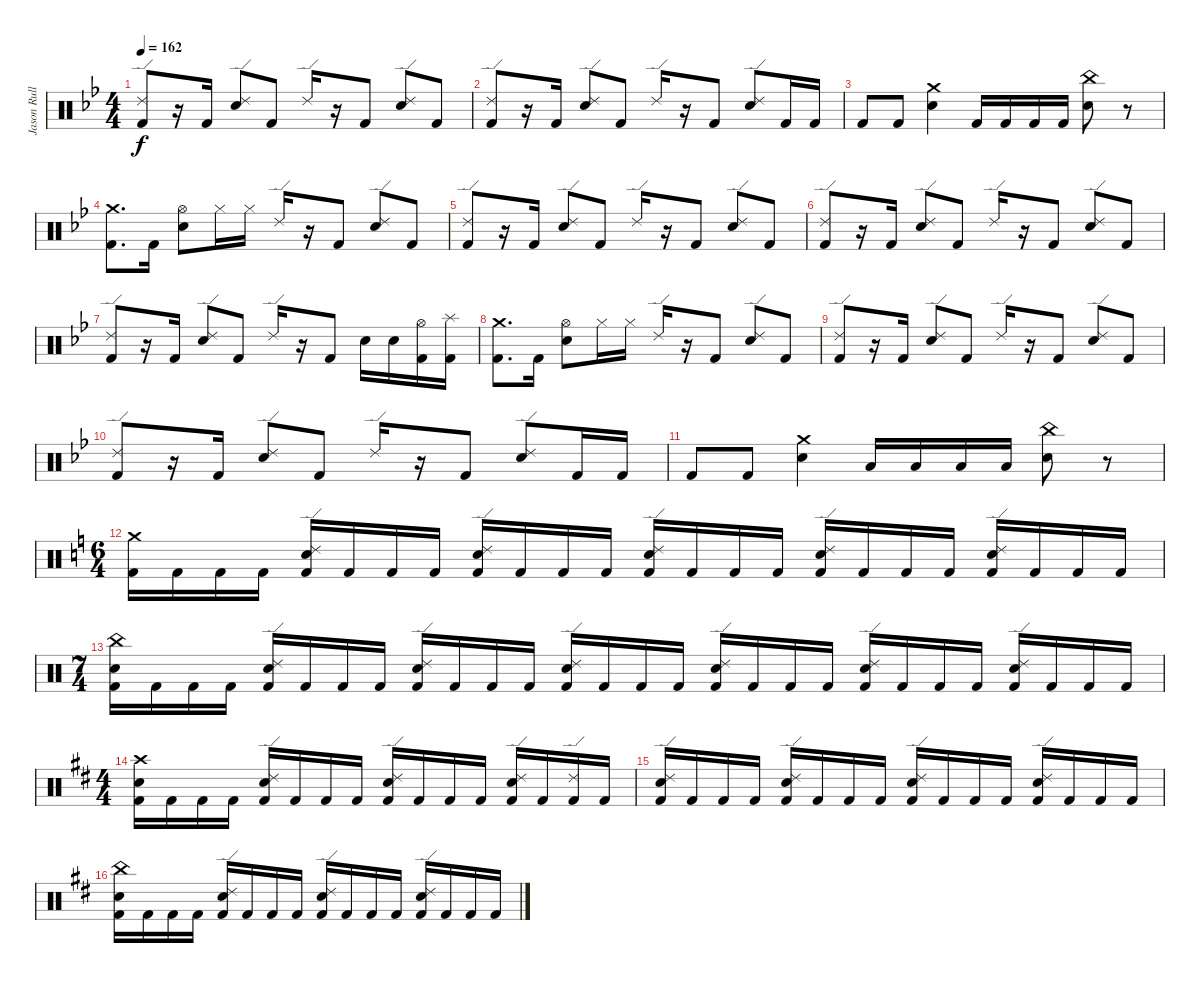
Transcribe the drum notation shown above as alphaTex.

\track ("Jason Rullo" "Jason Rull") {instrument percussion}
\staff {score}
\articulation defaults
\ts (4 4)
\tempo 162
\clef neutral
\ks bb
("Ride (edge) 2" "Kick (hit) 2").8{dy f} r.16 "Kick (hit) 2".16 ("Electric Snare (hit)" "Ride (edge) 2").8 "Kick (hit) 2".8 "Ride (edge) 2".16 r.16 "Kick (hit) 2".8 ("Electric Snare (hit)" "Ride (edge) 2").8 "Kick (hit) 2".8 |
("Ride (edge) 2" "Kick (hit) 2").8 r.16 "Kick (hit) 2".16 ("Electric Snare (hit)" "Ride (edge) 2").8 "Kick (hit) 2".8 "Ride (edge) 2".16 r.16 "Kick (hit) 2".8 ("Electric Snare (hit)" "Ride (edge) 2").8 "Kick (hit) 2".16 "Kick (hit) 2".16 |
"Kick (hit) 2".8 "Kick (hit) 2".8 ("Crash medium (hit)" "Electric Snare (hit)").4 "Kick (hit) 2".16 "Kick (hit) 2".16 "Kick (hit) 2".16 "Kick (hit) 2".16 ("China (hit)" "Electric Snare (hit)").8 r.8 |
("Crash medium (hit)" "Kick (hit) 2").8{d} "Kick (hit) 2".16 ("Hi-Hat (open)" "Electric Snare (hit)").8 "Hi-Hat (closed)".16 "Hi-Hat (closed)".16 "Ride (edge) 2".16 r.16 "Kick (hit) 2".8 ("Ride (edge) 2" "Electric Snare (hit)").8 "Kick (hit) 2".8 |
("Ride (edge) 2" "Kick (hit) 2").8 r.16 "Kick (hit) 2".16 ("Electric Snare (hit)" "Ride (edge) 2").8 "Kick (hit) 2".8 "Ride (edge) 2".16 r.16 "Kick (hit) 2".8 ("Electric Snare (hit)" "Ride (edge) 2").8 "Kick (hit) 2".8 |
("Ride (edge) 2" "Kick (hit) 2").8 r.16 "Kick (hit) 2".16 ("Electric Snare (hit)" "Ride (edge) 2").8 "Kick (hit) 2".8 "Ride (edge) 2".16 r.16 "Kick (hit) 2".8 ("Electric Snare (hit)" "Ride (edge) 2").8 "Kick (hit) 2".8 |
("Ride (edge) 2" "Kick (hit) 2").8 r.16 "Kick (hit) 2".16 ("Electric Snare (hit)" "Ride (edge) 2").8 "Kick (hit) 2".8 "Ride (edge) 2".16 r.16 "Kick (hit) 2".8 "Electric Snare (hit)".16 "Electric Snare (hit)".16 ("Kick (hit) 2" "Hi-Hat (open)").16 ("Kick (hit) 2" "Splash (hit)").16 |
("Crash medium (hit)" "Kick (hit) 2").8{d} "Kick (hit) 2".16 ("Hi-Hat (open)" "Electric Snare (hit)").8 "Hi-Hat (closed)".16 "Hi-Hat (closed)".16 "Ride (edge) 2".16 r.16 "Kick (hit) 2".8 ("Ride (edge) 2" "Electric Snare (hit)").8 "Kick (hit) 2".8 |
("Ride (edge) 2" "Kick (hit) 2").8 r.16 "Kick (hit) 2".16 ("Electric Snare (hit)" "Ride (edge) 2").8 "Kick (hit) 2".8 "Ride (edge) 2".16 r.16 "Kick (hit) 2".8 ("Electric Snare (hit)" "Ride (edge) 2").8 "Kick (hit) 2".8 |
("Ride (edge) 2" "Kick (hit) 2").8 r.16 "Kick (hit) 2".16 ("Electric Snare (hit)" "Ride (edge) 2").8 "Kick (hit) 2".8 "Ride (edge) 2".16 r.16 "Kick (hit) 2".8 ("Electric Snare (hit)" "Ride (edge) 2").8 "Kick (hit) 2".16 "Kick (hit) 2".16 |
"Kick (hit) 2".8 "Kick (hit) 2".8 ("Crash medium (hit)" "Electric Snare (hit)").4 "Low Tom (hit)".16 "Low Tom (hit)".16 "Low Tom (hit)".16 "Low Tom (hit)".16 ("China (hit)" "Electric Snare (hit)").8 r.8 |
\ts (6 4)
\ks aminor
("Crash medium (hit)" "Kick (hit) 2").16 "Kick (hit) 2".16 "Kick (hit) 2".16 "Kick (hit) 2".16 ("Ride (edge) 2" "Electric Snare (hit)" "Kick (hit) 2").16 "Kick (hit) 2".16 "Kick (hit) 2".16 "Kick (hit) 2".16 ("Ride (edge) 2" "Electric Snare (hit)" "Kick (hit) 2").16 "Kick (hit) 2".16 "Kick (hit) 2".16 "Kick (hit) 2".16 ("Ride (edge) 2" "Electric Snare (hit)" "Kick (hit) 2").16 "Kick (hit) 2".16 "Kick (hit) 2".16 "Kick (hit) 2".16 ("Ride (edge) 2" "Electric Snare (hit)" "Kick (hit) 2").16 "Kick (hit) 2".16 "Kick (hit) 2".16 "Kick (hit) 2".16 ("Ride (edge) 2" "Electric Snare (hit)" "Kick (hit) 2").16 "Kick (hit) 2".16 "Kick (hit) 2".16 "Kick (hit) 2".16 |
\ts (7 4)
("China (hit)" "Electric Snare (hit)" "Kick (hit) 2").16 "Kick (hit) 2".16 "Kick (hit) 2".16 "Kick (hit) 2".16 ("Ride (edge) 2" "Electric Snare (hit)" "Kick (hit) 2").16 "Kick (hit) 2".16 "Kick (hit) 2".16 "Kick (hit) 2".16 ("Ride (edge) 2" "Electric Snare (hit)" "Kick (hit) 2").16 "Kick (hit) 2".16 "Kick (hit) 2".16 "Kick (hit) 2".16 ("Ride (edge) 2" "Electric Snare (hit)" "Kick (hit) 2").16 "Kick (hit) 2".16 "Kick (hit) 2".16 "Kick (hit) 2".16 ("Ride (edge) 2" "Electric Snare (hit)" "Kick (hit) 2").16 "Kick (hit) 2".16 "Kick (hit) 2".16 "Kick (hit) 2".16 ("Ride (edge) 2" "Electric Snare (hit)" "Kick (hit) 2").16 "Kick (hit) 2".16 "Kick (hit) 2".16 "Kick (hit) 2".16 ("Ride (edge) 2" "Electric Snare (hit)" "Kick (hit) 2").16 "Kick (hit) 2".16 "Kick (hit) 2".16 "Kick (hit) 2".16 |
\ts (4 4)
\ks bminor
("Crash high (hit)" "Electric Snare (hit)" "Kick (hit) 2").16 "Kick (hit) 2".16 "Kick (hit) 2".16 "Kick (hit) 2".16 ("Ride (edge) 2" "Electric Snare (hit)" "Kick (hit) 2").16 "Kick (hit) 2".16 "Kick (hit) 2".16 "Kick (hit) 2".16 ("Ride (edge) 2" "Electric Snare (hit)" "Kick (hit) 2").16 "Kick (hit) 2".16 "Kick (hit) 2".16 "Kick (hit) 2".16 ("Ride (edge) 2" "Electric Snare (hit)" "Kick (hit) 2").16 "Kick (hit) 2".16 ("Ride (edge) 2" "Kick (hit) 2").16 "Kick (hit) 2".16 |
("Ride (edge) 2" "Electric Snare (hit)" "Kick (hit) 2").16 "Kick (hit) 2".16 "Kick (hit) 2".16 "Kick (hit) 2".16 ("Ride (edge) 2" "Electric Snare (hit)" "Kick (hit) 2").16 "Kick (hit) 2".16 "Kick (hit) 2".16 "Kick (hit) 2".16 ("Ride (edge) 2" "Electric Snare (hit)" "Kick (hit) 2").16 "Kick (hit) 2".16 "Kick (hit) 2".16 "Kick (hit) 2".16 ("Ride (edge) 2" "Electric Snare (hit)" "Kick (hit) 2").16 "Kick (hit) 2".16 "Kick (hit) 2".16 "Kick (hit) 2".16 |
("China (hit)" "Electric Snare (hit)" "Kick (hit) 2").16 "Kick (hit) 2".16 "Kick (hit) 2".16 "Kick (hit) 2".16 ("Ride (edge) 2" "Electric Snare (hit)" "Kick (hit) 2").16 "Kick (hit) 2".16 "Kick (hit) 2".16 "Kick (hit) 2".16 ("Ride (edge) 2" "Electric Snare (hit)" "Kick (hit) 2").16 "Kick (hit) 2".16 "Kick (hit) 2".16 "Kick (hit) 2".16 ("Ride (edge) 2" "Electric Snare (hit)" "Kick (hit) 2").16 "Kick (hit) 2".16 "Kick (hit) 2".16 "Kick (hit) 2".16
